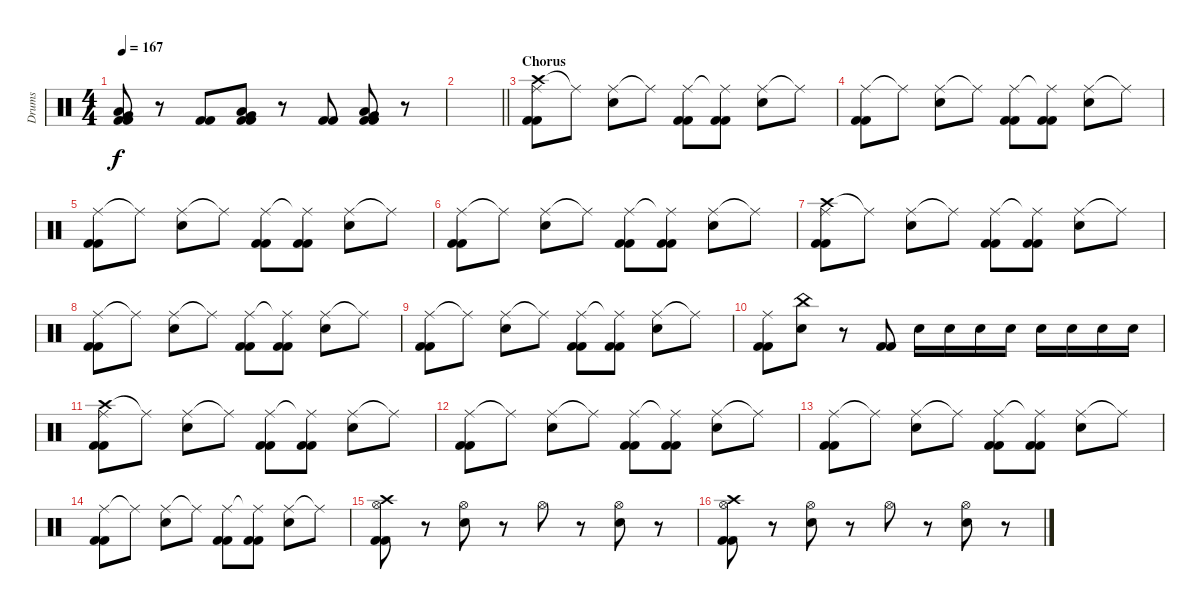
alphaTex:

\track ("Drums" "Drums") {instrument percussion}
\staff {score}
\articulation defaults
\ts (4 4)
\tempo 167
\clef neutral
\ks c
("Low Floor Tom (hit)" "Very Low Tom (hit)" "Kick (hit) 2" "Kick (hit) 2").8{dy f} r.8 ("Kick (hit) 2" "Kick (hit) 2").8 ("Low Floor Tom (hit)" "Very Low Tom (hit)" "Kick (hit) 2" "Kick (hit) 2").8 r.8 ("Kick (hit) 2" "Kick (hit) 2").8 ("Low Floor Tom (hit)" "Very Low Tom (hit)" "Kick (hit) 2" "Kick (hit) 2").8 r.8 |
\barLineRight lightlight
|
\section ("" "Chorus")
("Crash high (hit)" "Ride (middle)" "Kick (hit) 2" "Kick (hit) 2").8 "Ride (middle)"{t}.8 ("Ride (middle)" "Electric Snare (hit)").8 "Ride (middle)"{t}.8 ("Ride (middle)" "Kick (hit) 2" "Kick (hit) 2").8 ("Ride (middle)"{t} "Kick (hit) 2" "Kick (hit) 2").8 ("Ride (middle)" "Electric Snare (hit)").8 "Ride (middle)"{t}.8 |
("Ride (middle)" "Kick (hit) 2" "Kick (hit) 2").8 "Ride (middle)"{t}.8 ("Ride (middle)" "Electric Snare (hit)").8 "Ride (middle)"{t}.8 ("Ride (middle)" "Kick (hit) 2" "Kick (hit) 2").8 ("Ride (middle)"{t} "Kick (hit) 2" "Kick (hit) 2").8 ("Ride (middle)" "Electric Snare (hit)").8 "Ride (middle)"{t}.8 |
("Ride (middle)" "Kick (hit) 2" "Kick (hit) 2").8 "Ride (middle)"{t}.8 ("Ride (middle)" "Electric Snare (hit)").8 "Ride (middle)"{t}.8 ("Ride (middle)" "Kick (hit) 2" "Kick (hit) 2").8 ("Ride (middle)"{t} "Kick (hit) 2" "Kick (hit) 2").8 ("Ride (middle)" "Electric Snare (hit)").8 "Ride (middle)"{t}.8 |
("Ride (middle)" "Kick (hit) 2" "Kick (hit) 2").8 "Ride (middle)"{t}.8 ("Ride (middle)" "Electric Snare (hit)").8 "Ride (middle)"{t}.8 ("Ride (middle)" "Kick (hit) 2" "Kick (hit) 2").8 ("Ride (middle)"{t} "Kick (hit) 2" "Kick (hit) 2").8 ("Ride (middle)" "Electric Snare (hit)").8 "Ride (middle)"{t}.8 |
("Crash high (hit)" "Ride (middle)" "Kick (hit) 2" "Kick (hit) 2").8 "Ride (middle)"{t}.8 ("Ride (middle)" "Electric Snare (hit)").8 "Ride (middle)"{t}.8 ("Ride (middle)" "Kick (hit) 2" "Kick (hit) 2").8 ("Ride (middle)"{t} "Kick (hit) 2" "Kick (hit) 2").8 ("Ride (middle)" "Electric Snare (hit)").8 "Ride (middle)"{t}.8 |
("Ride (middle)" "Kick (hit) 2" "Kick (hit) 2").8 "Ride (middle)"{t}.8 ("Ride (middle)" "Electric Snare (hit)").8 "Ride (middle)"{t}.8 ("Ride (middle)" "Kick (hit) 2" "Kick (hit) 2").8 ("Ride (middle)"{t} "Kick (hit) 2" "Kick (hit) 2").8 ("Ride (middle)" "Electric Snare (hit)").8 "Ride (middle)"{t}.8 |
("Ride (middle)" "Kick (hit) 2" "Kick (hit) 2").8 "Ride (middle)"{t}.8 ("Ride (middle)" "Electric Snare (hit)").8 "Ride (middle)"{t}.8 ("Ride (middle)" "Kick (hit) 2" "Kick (hit) 2").8 ("Ride (middle)"{t} "Kick (hit) 2" "Kick (hit) 2").8 ("Ride (middle)" "Electric Snare (hit)").8 "Ride (middle)"{t}.8 |
("Ride (middle)" "Kick (hit) 2" "Kick (hit) 2").8 ("China (hit)" "Electric Snare (hit)").8 r.8 ("Kick (hit) 2" "Kick (hit) 2").8 "Electric Snare (hit)".16 "Electric Snare (hit)".16 "Electric Snare (hit)".16 "Electric Snare (hit)".16 "Electric Snare (hit)".16 "Electric Snare (hit)".16 "Electric Snare (hit)".16 "Electric Snare (hit)".16 |
("Crash high (hit)" "Ride (middle)" "Kick (hit) 2" "Kick (hit) 2").8 "Ride (middle)"{t}.8 ("Ride (middle)" "Electric Snare (hit)").8 "Ride (middle)"{t}.8 ("Ride (middle)" "Kick (hit) 2" "Kick (hit) 2").8 ("Ride (middle)"{t} "Kick (hit) 2" "Kick (hit) 2").8 ("Ride (middle)" "Electric Snare (hit)").8 "Ride (middle)"{t}.8 |
("Ride (middle)" "Kick (hit) 2" "Kick (hit) 2").8 "Ride (middle)"{t}.8 ("Ride (middle)" "Electric Snare (hit)").8 "Ride (middle)"{t}.8 ("Ride (middle)" "Kick (hit) 2" "Kick (hit) 2").8 ("Ride (middle)"{t} "Kick (hit) 2" "Kick (hit) 2").8 ("Ride (middle)" "Electric Snare (hit)").8 "Ride (middle)"{t}.8 |
("Ride (middle)" "Kick (hit) 2" "Kick (hit) 2").8 "Ride (middle)"{t}.8 ("Ride (middle)" "Electric Snare (hit)").8 "Ride (middle)"{t}.8 ("Ride (middle)" "Kick (hit) 2" "Kick (hit) 2").8 ("Ride (middle)"{t} "Kick (hit) 2" "Kick (hit) 2").8 ("Ride (middle)" "Electric Snare (hit)").8 "Ride (middle)"{t}.8 |
("Ride (middle)" "Kick (hit) 2" "Kick (hit) 2").8 "Ride (middle)"{t}.8 ("Ride (middle)" "Electric Snare (hit)").8 "Ride (middle)"{t}.8 ("Ride (middle)" "Kick (hit) 2" "Kick (hit) 2").8 ("Ride (middle)"{t} "Kick (hit) 2" "Kick (hit) 2").8 ("Ride (middle)" "Electric Snare (hit)").8 "Ride (middle)"{t}.8 |
("Crash high (hit)" "Hi-Hat (open)" "Kick (hit) 2" "Kick (hit) 2").8 r.8 ("Hi-Hat (open)" "Electric Snare (hit)").8 r.8 "Hi-Hat (open)".8 r.8 ("Hi-Hat (open)" "Electric Snare (hit)").8 r.8 |
("Crash high (hit)" "Hi-Hat (open)" "Kick (hit) 2" "Kick (hit) 2").8 r.8 ("Hi-Hat (open)" "Electric Snare (hit)").8 r.8 "Hi-Hat (open)".8 r.8 ("Hi-Hat (open)" "Electric Snare (hit)").8 r.8
